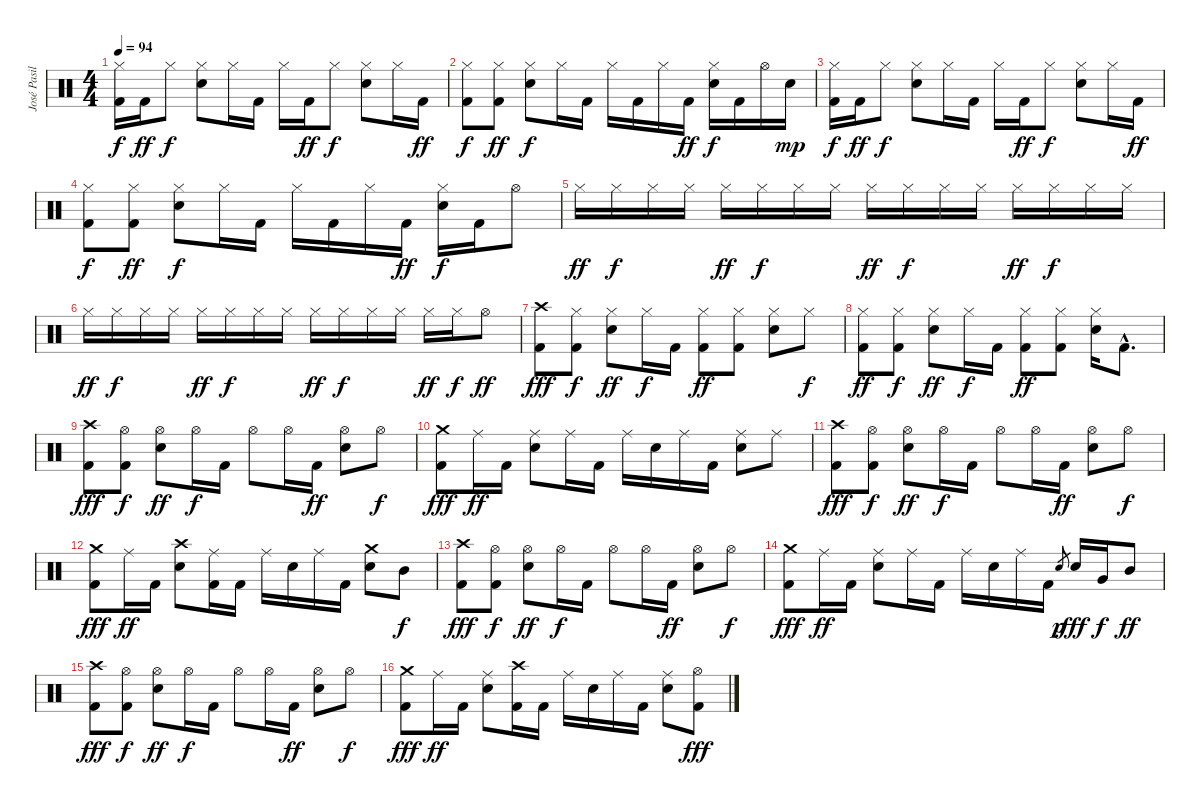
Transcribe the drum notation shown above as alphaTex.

\track ("José Pasillas II : Drums" "José Pasil") {instrument percussion}
\staff {score}
\articulation defaults
\ts (4 4)
\tempo 94
\clef neutral
\ks c
("Hi-Hat (closed)" "Kick (hit) 2").16{dy f} "Kick (hit) 2".16{dy ff} "Hi-Hat (closed)".8{dy f} ("Hi-Hat (closed)" "Electric Snare (hit)").8 "Hi-Hat (closed)".16 "Kick (hit) 2".16 "Hi-Hat (closed)".16 "Kick (hit) 2".16{dy ff} "Hi-Hat (closed)".8{dy f} ("Hi-Hat (closed)" "Electric Snare (hit)").8 "Hi-Hat (closed)".16 "Kick (hit) 2".16{dy ff} |
("Hi-Hat (closed)" "Kick (hit) 2").8{dy f} ("Hi-Hat (closed)" "Kick (hit) 2").8{dy ff} ("Hi-Hat (closed)" "Electric Snare (hit)").8{dy f} "Hi-Hat (closed)".16 "Kick (hit) 2".16 "Hi-Hat (closed)".16 "Kick (hit) 2".16 "Hi-Hat (closed)".16 "Kick (hit) 2".16{dy ff} ("Hi-Hat (closed)" "Electric Snare (hit)").16{dy f} "Kick (hit) 2".16 "Hi-Hat (open)".16 "Electric Snare (hit)".16{dy mp} |
("Hi-Hat (closed)" "Kick (hit) 2").16{dy f} "Kick (hit) 2".16{dy ff} "Hi-Hat (closed)".8{dy f} ("Hi-Hat (closed)" "Electric Snare (hit)").8 "Hi-Hat (closed)".16 "Kick (hit) 2".16 "Hi-Hat (closed)".16 "Kick (hit) 2".16{dy ff} "Hi-Hat (closed)".8{dy f} ("Hi-Hat (closed)" "Electric Snare (hit)").8 "Hi-Hat (closed)".16 "Kick (hit) 2".16{dy ff} |
("Hi-Hat (closed)" "Kick (hit) 2").8{dy f} ("Hi-Hat (closed)" "Kick (hit) 2").8{dy ff} ("Hi-Hat (closed)" "Electric Snare (hit)").8{dy f} "Hi-Hat (closed)".16 "Kick (hit) 2".16 "Hi-Hat (closed)".16 "Kick (hit) 2".16 "Hi-Hat (closed)".16 "Kick (hit) 2".16{dy ff} ("Hi-Hat (closed)" "Electric Snare (hit)").16{dy f} "Kick (hit) 2".16 "Hi-Hat (open)".8 |
"Hi-Hat (closed)".16{dy ff} "Hi-Hat (closed)".16{dy f} "Hi-Hat (closed)".16 "Hi-Hat (closed)".16 "Hi-Hat (closed)".16{dy ff} "Hi-Hat (closed)".16{dy f} "Hi-Hat (closed)".16 "Hi-Hat (closed)".16 "Hi-Hat (closed)".16{dy ff} "Hi-Hat (closed)".16{dy f} "Hi-Hat (closed)".16 "Hi-Hat (closed)".16 "Hi-Hat (closed)".16{dy ff} "Hi-Hat (closed)".16{dy f} "Hi-Hat (closed)".16 "Hi-Hat (closed)".16 |
"Hi-Hat (closed)".16{dy ff} "Hi-Hat (closed)".16{dy f} "Hi-Hat (closed)".16 "Hi-Hat (closed)".16 "Hi-Hat (closed)".16{dy ff} "Hi-Hat (closed)".16{dy f} "Hi-Hat (closed)".16 "Hi-Hat (closed)".16 "Hi-Hat (closed)".16{dy ff} "Hi-Hat (closed)".16{dy f} "Hi-Hat (closed)".16 "Hi-Hat (closed)".16 "Hi-Hat (closed)".16{dy ff} "Hi-Hat (closed)".16{dy f} "Hi-Hat (open)".8{dy ff} |
("Crash high (hit)" "Kick (hit) 2").8{dy fff} ("Hi-Hat (closed)" "Kick (hit) 2").8{dy f} ("Hi-Hat (closed)" "Electric Snare (hit)").8{dy ff} "Hi-Hat (closed)".16{dy f} "Kick (hit) 2".16 ("Hi-Hat (closed)" "Kick (hit) 2").8{dy ff} ("Hi-Hat (closed)" "Kick (hit) 2").8 ("Hi-Hat (closed)" "Electric Snare (hit)").8 "Hi-Hat (closed)".8{dy f} |
("Hi-Hat (closed)" "Kick (hit) 2").8{dy ff} ("Hi-Hat (closed)" "Kick (hit) 2").8{dy f} ("Hi-Hat (closed)" "Electric Snare (hit)").8{dy ff} "Hi-Hat (closed)".16{dy f} "Kick (hit) 2".16 ("Hi-Hat (closed)" "Kick (hit) 2").8{dy ff} ("Hi-Hat (closed)" "Kick (hit) 2").8 ("Hi-Hat (closed)" "Electric Snare (hit)").16 "Kick (hit) 2"{hac}.8{d} |
("Crash high (hit)" "Kick (hit) 2").8{dy fff} ("Hi-Hat (open)" "Kick (hit) 2").8{dy f} ("Hi-Hat (open)" "Electric Snare (hit)").8{dy ff} "Hi-Hat (open)".16{dy f} "Kick (hit) 2".16 "Hi-Hat (open)".8 "Hi-Hat (open)".16 "Kick (hit) 2".16{dy ff} ("Hi-Hat (open)" "Electric Snare (hit)").8 "Hi-Hat (open)".8{dy f} |
("Crash medium (hit)" "Kick (hit) 2").8{dy fff} "Ride (middle)".16{dy ff} "Kick (hit) 2".16 ("Ride (middle)" "Electric Snare (hit)").8 "Ride (middle)".16 "Kick (hit) 2".16 "Ride (middle)".16 "Electric Snare (hit)".16 "Ride (middle)".16 "Kick (hit) 2".16 ("Ride (middle)" "Electric Snare (hit)").8 "Ride (middle)".8 |
("Crash high (hit)" "Kick (hit) 2").8{dy fff} ("Hi-Hat (open)" "Kick (hit) 2").8{dy f} ("Hi-Hat (open)" "Electric Snare (hit)").8{dy ff} "Hi-Hat (open)".16{dy f} "Kick (hit) 2".16 "Hi-Hat (open)".8 "Hi-Hat (open)".16 "Kick (hit) 2".16{dy ff} ("Hi-Hat (open)" "Electric Snare (hit)").8 "Hi-Hat (open)".8{dy f} |
("Crash medium (hit)" "Kick (hit) 2").8{dy fff} "Ride (middle)".16{dy ff} "Kick (hit) 2".16 ("Crash high (hit)" "Electric Snare (hit)").8 ("Ride (middle)" "Kick (hit) 2").16 "Kick (hit) 2".16 "Ride (middle)".16 "Electric Snare (hit)".16 "Ride (middle)".16 "Kick (hit) 2".16 ("Crash medium (hit)" "Electric Snare (hit)").8 "Mid Tom (hit)".8{dy f} |
("Crash high (hit)" "Kick (hit) 2").8{dy fff} ("Hi-Hat (open)" "Kick (hit) 2").8{dy f} ("Hi-Hat (open)" "Electric Snare (hit)").8{dy ff} "Hi-Hat (open)".16{dy f} "Kick (hit) 2".16 "Hi-Hat (open)".8 "Hi-Hat (open)".16 "Kick (hit) 2".16{dy ff} ("Hi-Hat (open)" "Electric Snare (hit)").8 "Hi-Hat (open)".8{dy f} |
("Crash medium (hit)" "Kick (hit) 2").8{dy fff} "Ride (middle)".16{dy ff} "Kick (hit) 2".16 ("Ride (middle)" "Electric Snare (hit)").8 "Ride (middle)".16 "Kick (hit) 2".16 "Ride (middle)".16 "Electric Snare (hit)".16 "Ride (middle)".16 "Kick (hit) 2".16 "Electric Snare (hit)".8{gr dy p} "Electric Snare (hit)".16{dy fff} "Very Low Tom (hit)".16{dy f} "Mid Tom (hit)".8{dy ff} |
("Crash high (hit)" "Kick (hit) 2").8{dy fff} ("Hi-Hat (open)" "Kick (hit) 2").8{dy f} ("Hi-Hat (open)" "Electric Snare (hit)").8{dy ff} "Hi-Hat (open)".16{dy f} "Kick (hit) 2".16 "Hi-Hat (open)".8 "Hi-Hat (open)".16 "Kick (hit) 2".16{dy ff} ("Hi-Hat (open)" "Electric Snare (hit)").8 "Hi-Hat (open)".8{dy f} |
("Crash medium (hit)" "Kick (hit) 2").8{dy fff} "Ride (middle)".16{dy ff} "Kick (hit) 2".16 ("Ride (middle)" "Electric Snare (hit)").8 ("Crash high (hit)" "Kick (hit) 2").16 "Kick (hit) 2".16 "Ride (middle)".16 "Electric Snare (hit)".16 "Ride (middle)".16 "Kick (hit) 2".16 ("Ride (middle)" "Electric Snare (hit)").8 ("Hi-Hat (open)" "Kick (hit) 2").8{dy fff}
